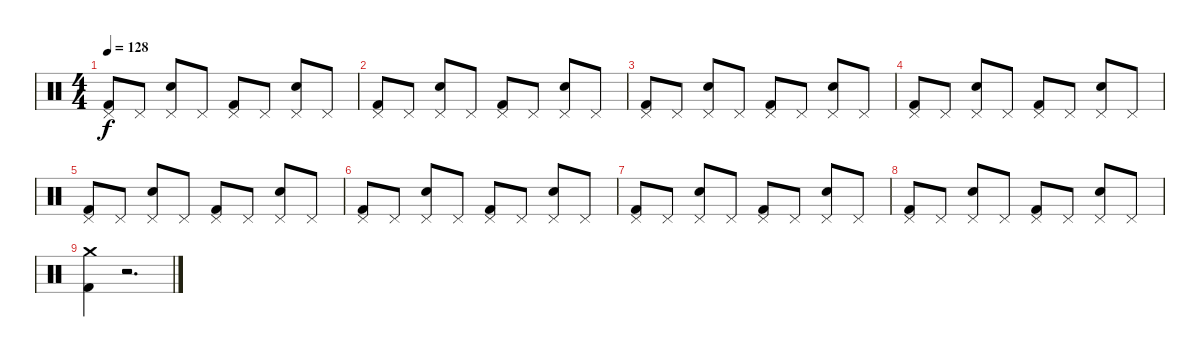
\track "" {instrument percussion}
\staff {score}
\articulation defaults
\ts (4 4)
\tempo 128
\clef neutral
\ks c
("Kick (hit) 2" "Pedal Hi-Hat (hit)").8{dy f} "Pedal Hi-Hat (hit)".8 ("Electric Snare (hit)" "Pedal Hi-Hat (hit)").8 "Pedal Hi-Hat (hit)".8 ("Kick (hit) 2" "Pedal Hi-Hat (hit)").8 "Pedal Hi-Hat (hit)".8 ("Electric Snare (hit)" "Pedal Hi-Hat (hit)").8 "Pedal Hi-Hat (hit)".8 |
("Kick (hit) 2" "Pedal Hi-Hat (hit)").8 "Pedal Hi-Hat (hit)".8 ("Electric Snare (hit)" "Pedal Hi-Hat (hit)").8 "Pedal Hi-Hat (hit)".8 ("Kick (hit) 2" "Pedal Hi-Hat (hit)").8 "Pedal Hi-Hat (hit)".8 ("Electric Snare (hit)" "Pedal Hi-Hat (hit)").8 "Pedal Hi-Hat (hit)".8 |
("Kick (hit) 2" "Pedal Hi-Hat (hit)").8 "Pedal Hi-Hat (hit)".8 ("Electric Snare (hit)" "Pedal Hi-Hat (hit)").8 "Pedal Hi-Hat (hit)".8 ("Kick (hit) 2" "Pedal Hi-Hat (hit)").8 "Pedal Hi-Hat (hit)".8 ("Electric Snare (hit)" "Pedal Hi-Hat (hit)").8 "Pedal Hi-Hat (hit)".8 |
("Kick (hit) 2" "Pedal Hi-Hat (hit)").8 "Pedal Hi-Hat (hit)".8 ("Electric Snare (hit)" "Pedal Hi-Hat (hit)").8 "Pedal Hi-Hat (hit)".8 ("Kick (hit) 2" "Pedal Hi-Hat (hit)").8 "Pedal Hi-Hat (hit)".8 ("Electric Snare (hit)" "Pedal Hi-Hat (hit)").8 "Pedal Hi-Hat (hit)".8 |
("Kick (hit) 2" "Pedal Hi-Hat (hit)").8 "Pedal Hi-Hat (hit)".8 ("Electric Snare (hit)" "Pedal Hi-Hat (hit)").8 "Pedal Hi-Hat (hit)".8 ("Kick (hit) 2" "Pedal Hi-Hat (hit)").8 "Pedal Hi-Hat (hit)".8 ("Electric Snare (hit)" "Pedal Hi-Hat (hit)").8 "Pedal Hi-Hat (hit)".8 |
("Kick (hit) 2" "Pedal Hi-Hat (hit)").8 "Pedal Hi-Hat (hit)".8 ("Electric Snare (hit)" "Pedal Hi-Hat (hit)").8 "Pedal Hi-Hat (hit)".8 ("Kick (hit) 2" "Pedal Hi-Hat (hit)").8 "Pedal Hi-Hat (hit)".8 ("Electric Snare (hit)" "Pedal Hi-Hat (hit)").8 "Pedal Hi-Hat (hit)".8 |
("Kick (hit) 2" "Pedal Hi-Hat (hit)").8 "Pedal Hi-Hat (hit)".8 ("Electric Snare (hit)" "Pedal Hi-Hat (hit)").8 "Pedal Hi-Hat (hit)".8 ("Kick (hit) 2" "Pedal Hi-Hat (hit)").8 "Pedal Hi-Hat (hit)".8 ("Electric Snare (hit)" "Pedal Hi-Hat (hit)").8 "Pedal Hi-Hat (hit)".8 |
("Kick (hit) 2" "Pedal Hi-Hat (hit)").8 "Pedal Hi-Hat (hit)".8 ("Electric Snare (hit)" "Pedal Hi-Hat (hit)").8 "Pedal Hi-Hat (hit)".8 ("Kick (hit) 2" "Pedal Hi-Hat (hit)").8 "Pedal Hi-Hat (hit)".8 ("Electric Snare (hit)" "Pedal Hi-Hat (hit)").8 "Pedal Hi-Hat (hit)".8 |
("Kick (hit) 2" "Crash medium (hit)").4 r.2{d}
